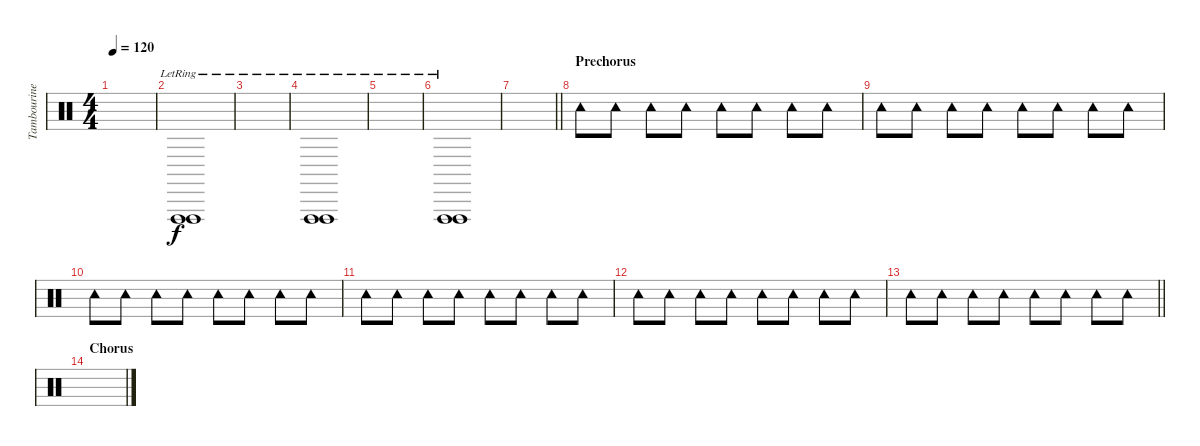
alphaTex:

\track ("Tambourine" "Tambourine") {instrument percussion}
\staff {score}
\articulation defaults
\ts (4 4)
\tempo 120
\clef neutral
\ks c
|
("Vibraslap (hit)"{lr} "Vibraslap (hit)"{lr}).1 |
|
("Vibraslap (hit)"{lr} "Vibraslap (hit)"{lr}).1 |
|
("Vibraslap (hit)"{lr} "Vibraslap (hit)"{lr}).1 |
\barLineRight lightlight
|
\section ("" "Prechorus")
"Tambourine (hit)".8 "Tambourine (hit)".8 "Tambourine (hit)".8 "Tambourine (hit)".8 "Tambourine (hit)".8 "Tambourine (hit)".8 "Tambourine (hit)".8 "Tambourine (hit)".8 |
"Tambourine (hit)".8 "Tambourine (hit)".8 "Tambourine (hit)".8 "Tambourine (hit)".8 "Tambourine (hit)".8 "Tambourine (hit)".8 "Tambourine (hit)".8 "Tambourine (hit)".8 |
"Tambourine (hit)".8 "Tambourine (hit)".8 "Tambourine (hit)".8 "Tambourine (hit)".8 "Tambourine (hit)".8 "Tambourine (hit)".8 "Tambourine (hit)".8 "Tambourine (hit)".8 |
"Tambourine (hit)".8 "Tambourine (hit)".8 "Tambourine (hit)".8 "Tambourine (hit)".8 "Tambourine (hit)".8 "Tambourine (hit)".8 "Tambourine (hit)".8 "Tambourine (hit)".8 |
"Tambourine (hit)".8 "Tambourine (hit)".8 "Tambourine (hit)".8 "Tambourine (hit)".8 "Tambourine (hit)".8 "Tambourine (hit)".8 "Tambourine (hit)".8 "Tambourine (hit)".8 |
\barLineRight lightlight "Tambourine (hit)".8 "Tambourine (hit)".8 "Tambourine (hit)".8 "Tambourine (hit)".8 "Tambourine (hit)".8 "Tambourine (hit)".8 "Tambourine (hit)".8 "Tambourine (hit)".8
|
\section ("" "Chorus")
